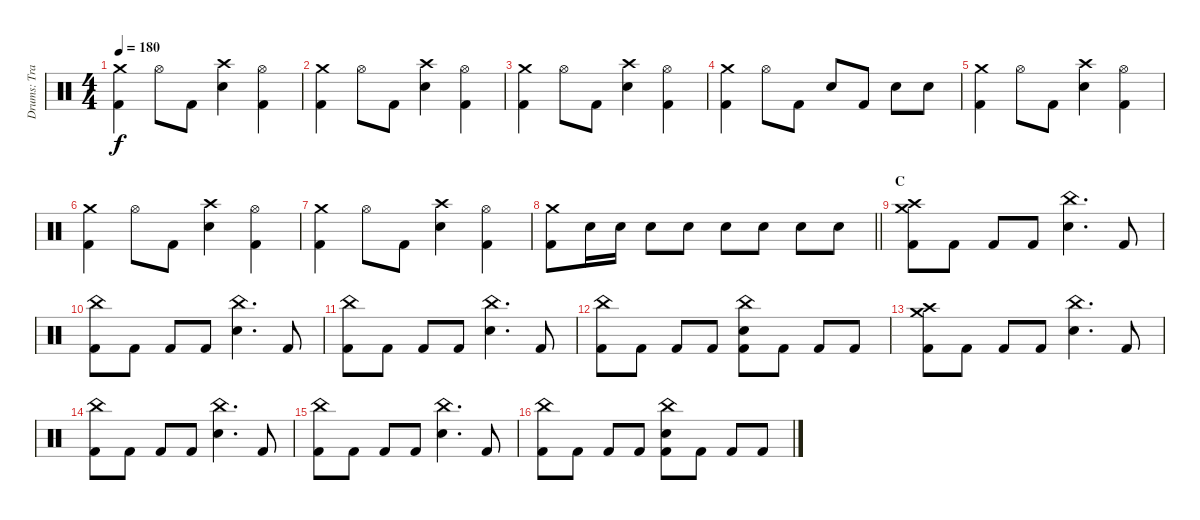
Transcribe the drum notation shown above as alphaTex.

\track ("Drums: Travis Clarke" "Drums: Tra") {instrument percussion}
\staff {score}
\articulation defaults
\ts (4 4)
\tempo 180
\clef neutral
\ks c
("Kick (hit) 2" "Crash medium (hit)").4{dy f} "Hi-Hat (open)".8 "Kick (hit) 2".8 ("Snare (hit) 2" "Crash high (hit)").4 ("Kick (hit) 2" "Hi-Hat (open)").4 |
("Kick (hit) 2" "Crash medium (hit)").4 "Hi-Hat (open)".8 "Kick (hit) 2".8 ("Snare (hit) 2" "Crash high (hit)").4 ("Kick (hit) 2" "Hi-Hat (open)").4 |
("Kick (hit) 2" "Crash medium (hit)").4 "Hi-Hat (open)".8 "Kick (hit) 2".8 ("Snare (hit) 2" "Crash high (hit)").4 ("Kick (hit) 2" "Hi-Hat (open)").4 |
("Kick (hit) 2" "Crash medium (hit)").4 "Hi-Hat (open)".8 "Kick (hit) 2".8 "Snare (hit) 2".8 "Kick (hit) 2".8 "Snare (hit) 2".8 "Snare (hit) 2".8 |
("Kick (hit) 2" "Crash medium (hit)").4 "Hi-Hat (open)".8 "Kick (hit) 2".8 ("Snare (hit) 2" "Crash high (hit)").4 ("Kick (hit) 2" "Hi-Hat (open)").4 |
("Kick (hit) 2" "Crash medium (hit)").4 "Hi-Hat (open)".8 "Kick (hit) 2".8 ("Snare (hit) 2" "Crash high (hit)").4 ("Kick (hit) 2" "Hi-Hat (open)").4 |
("Kick (hit) 2" "Crash medium (hit)").4 "Hi-Hat (open)".8 "Kick (hit) 2".8 ("Snare (hit) 2" "Crash high (hit)").4 ("Kick (hit) 2" "Hi-Hat (open)").4 |
\barLineRight lightlight
("Kick (hit) 2" "Crash medium (hit)").8 "Snare (hit) 2".16 "Snare (hit) 2".16 "Snare (hit) 2".8 "Snare (hit) 2".8 "Snare (hit) 2".8 "Snare (hit) 2".8 "Snare (hit) 2".8 "Snare (hit) 2".8 |
\section ("" "C")
("Kick (hit) 2" "Crash high (hit)" "Crash medium (hit)").8 "Kick (hit) 2".8 "Kick (hit) 2".8 "Kick (hit) 2".8 ("Snare (hit) 2" "China (hit)").4{d} "Kick (hit) 2".8 |
("Kick (hit) 2" "China (hit)").8 "Kick (hit) 2".8 "Kick (hit) 2".8 "Kick (hit) 2".8 ("Snare (hit) 2" "China (hit)").4{d} "Kick (hit) 2".8 |
("Kick (hit) 2" "China (hit)").8 "Kick (hit) 2".8 "Kick (hit) 2".8 "Kick (hit) 2".8 ("Snare (hit) 2" "China (hit)").4{d} "Kick (hit) 2".8 |
("Kick (hit) 2" "China (hit)").8 "Kick (hit) 2".8 "Kick (hit) 2".8 "Kick (hit) 2".8 ("Kick (hit) 2" "Snare (hit) 2" "China (hit)").8 "Kick (hit) 2".8 "Kick (hit) 2".8 "Kick (hit) 2".8 |
("Kick (hit) 2" "Crash high (hit)" "Crash medium (hit)").8 "Kick (hit) 2".8 "Kick (hit) 2".8 "Kick (hit) 2".8 ("Snare (hit) 2" "China (hit)").4{d} "Kick (hit) 2".8 |
("Kick (hit) 2" "China (hit)").8 "Kick (hit) 2".8 "Kick (hit) 2".8 "Kick (hit) 2".8 ("Snare (hit) 2" "China (hit)").4{d} "Kick (hit) 2".8 |
("Kick (hit) 2" "China (hit)").8 "Kick (hit) 2".8 "Kick (hit) 2".8 "Kick (hit) 2".8 ("Snare (hit) 2" "China (hit)").4{d} "Kick (hit) 2".8 |
("Kick (hit) 2" "China (hit)").8 "Kick (hit) 2".8 "Kick (hit) 2".8 "Kick (hit) 2".8 ("Kick (hit) 2" "Snare (hit) 2" "China (hit)").8 "Kick (hit) 2".8 "Kick (hit) 2".8 "Kick (hit) 2".8
